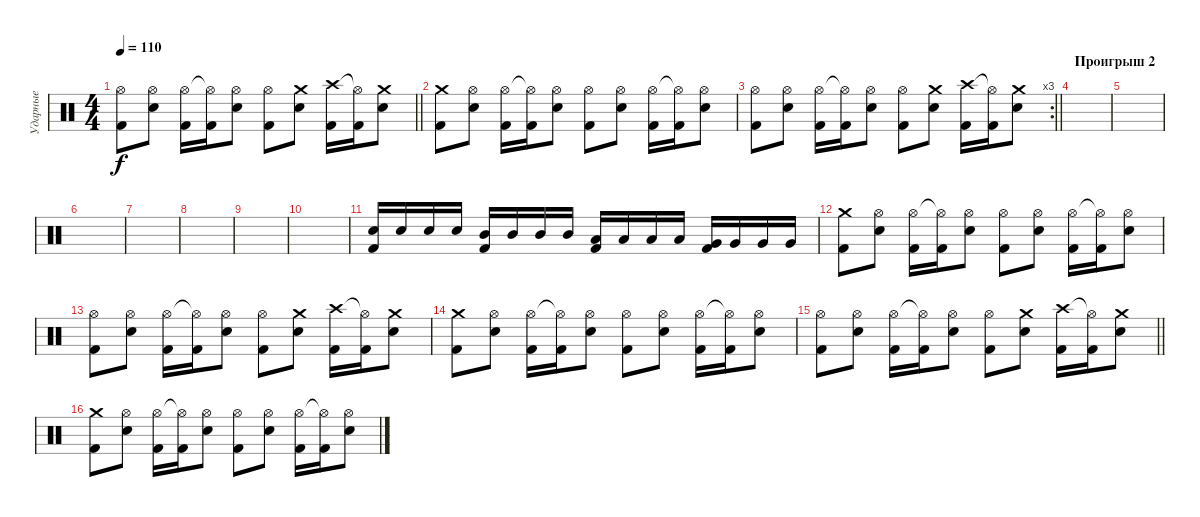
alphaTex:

\track ("Ударные" "Ударные") {instrument percussion}
\staff {score}
\articulation defaults
\ts (4 4)
\tempo 110
\clef neutral
\barLineRight lightlight
\ks c
("Hi-Hat (open)" "Kick (hit) 2").8{dy f} ("Hi-Hat (open)" "Snare (hit) 2").8 ("Hi-Hat (open)" "Kick (hit) 2").16 ("Hi-Hat (open)"{t} "Kick (hit) 2").16 ("Hi-Hat (open)" "Snare (hit) 2").8 ("Hi-Hat (open)" "Kick (hit) 2").8 ("Crash medium (hit)" "Snare (hit) 2").8 ("Crash high (hit)" "Kick (hit) 2").16 ("Hi-Hat (open)"{t} "Kick (hit) 2").16 ("Crash medium (hit)" "Snare (hit) 2").8 |
("Crash medium (hit)" "Kick (hit) 2").8 ("Hi-Hat (open)" "Snare (hit) 2").8 ("Hi-Hat (open)" "Kick (hit) 2").16 ("Hi-Hat (open)"{t} "Kick (hit) 2").16 ("Hi-Hat (open)" "Snare (hit) 2").8 ("Hi-Hat (open)" "Kick (hit) 2").8 ("Hi-Hat (open)" "Snare (hit) 2").8 ("Hi-Hat (open)" "Kick (hit) 2").16 ("Hi-Hat (open)"{t} "Kick (hit) 2").16 ("Hi-Hat (open)" "Snare (hit) 2").8 |
\rc 3
\barLineRight lightlight
("Hi-Hat (open)" "Kick (hit) 2").8 ("Hi-Hat (open)" "Snare (hit) 2").8 ("Hi-Hat (open)" "Kick (hit) 2").16 ("Hi-Hat (open)"{t} "Kick (hit) 2").16 ("Hi-Hat (open)" "Snare (hit) 2").8 ("Hi-Hat (open)" "Kick (hit) 2").8 ("Crash medium (hit)" "Snare (hit) 2").8 ("Crash high (hit)" "Kick (hit) 2").16 ("Hi-Hat (open)"{t} "Kick (hit) 2").16 ("Crash medium (hit)" "Snare (hit) 2").8 |
\section ("" "Проигрыш 2")
|
|
|
|
|
|
|
("Snare (hit) 2" "Kick (hit) 2").16 "Snare (hit) 2".16 "Snare (hit) 2".16 "Snare (hit) 2".16 ("Mid Tom (hit)" "Kick (hit) 2").16 "Mid Tom (hit)".16 "Mid Tom (hit)".16 "Mid Tom (hit)".16 ("Low Tom (hit)" "Kick (hit) 2").16 "Low Tom (hit)".16 "Low Tom (hit)".16 "Low Tom (hit)".16 ("Very Low Tom (hit)" "Kick (hit) 2").16 "Very Low Tom (hit)".16 "Very Low Tom (hit)".16 "Very Low Tom (hit)".16 |
("Crash medium (hit)" "Kick (hit) 2").8 ("Hi-Hat (open)" "Snare (hit) 2").8 ("Hi-Hat (open)" "Kick (hit) 2").16 ("Hi-Hat (open)"{t} "Kick (hit) 2").16 ("Hi-Hat (open)" "Snare (hit) 2").8 ("Hi-Hat (open)" "Kick (hit) 2").8 ("Hi-Hat (open)" "Snare (hit) 2").8 ("Hi-Hat (open)" "Kick (hit) 2").16 ("Hi-Hat (open)"{t} "Kick (hit) 2").16 ("Hi-Hat (open)" "Snare (hit) 2").8 |
("Hi-Hat (open)" "Kick (hit) 2").8 ("Hi-Hat (open)" "Snare (hit) 2").8 ("Hi-Hat (open)" "Kick (hit) 2").16 ("Hi-Hat (open)"{t} "Kick (hit) 2").16 ("Hi-Hat (open)" "Snare (hit) 2").8 ("Hi-Hat (open)" "Kick (hit) 2").8 ("Crash medium (hit)" "Snare (hit) 2").8 ("Crash high (hit)" "Kick (hit) 2").16 ("Hi-Hat (open)"{t} "Kick (hit) 2").16 ("Crash medium (hit)" "Snare (hit) 2").8 |
("Crash medium (hit)" "Kick (hit) 2").8 ("Hi-Hat (open)" "Snare (hit) 2").8 ("Hi-Hat (open)" "Kick (hit) 2").16 ("Hi-Hat (open)"{t} "Kick (hit) 2").16 ("Hi-Hat (open)" "Snare (hit) 2").8 ("Hi-Hat (open)" "Kick (hit) 2").8 ("Hi-Hat (open)" "Snare (hit) 2").8 ("Hi-Hat (open)" "Kick (hit) 2").16 ("Hi-Hat (open)"{t} "Kick (hit) 2").16 ("Hi-Hat (open)" "Snare (hit) 2").8 |
\barLineRight lightlight
("Hi-Hat (open)" "Kick (hit) 2").8 ("Hi-Hat (open)" "Snare (hit) 2").8 ("Hi-Hat (open)" "Kick (hit) 2").16 ("Hi-Hat (open)"{t} "Kick (hit) 2").16 ("Hi-Hat (open)" "Snare (hit) 2").8 ("Hi-Hat (open)" "Kick (hit) 2").8 ("Crash medium (hit)" "Snare (hit) 2").8 ("Crash high (hit)" "Kick (hit) 2").16 ("Hi-Hat (open)"{t} "Kick (hit) 2").16 ("Crash medium (hit)" "Snare (hit) 2").8 |
("Crash medium (hit)" "Kick (hit) 2").8 ("Hi-Hat (open)" "Snare (hit) 2").8 ("Hi-Hat (open)" "Kick (hit) 2").16 ("Hi-Hat (open)"{t} "Kick (hit) 2").16 ("Hi-Hat (open)" "Snare (hit) 2").8 ("Hi-Hat (open)" "Kick (hit) 2").8 ("Hi-Hat (open)" "Snare (hit) 2").8 ("Hi-Hat (open)" "Kick (hit) 2").16 ("Hi-Hat (open)"{t} "Kick (hit) 2").16 ("Hi-Hat (open)" "Snare (hit) 2").8
